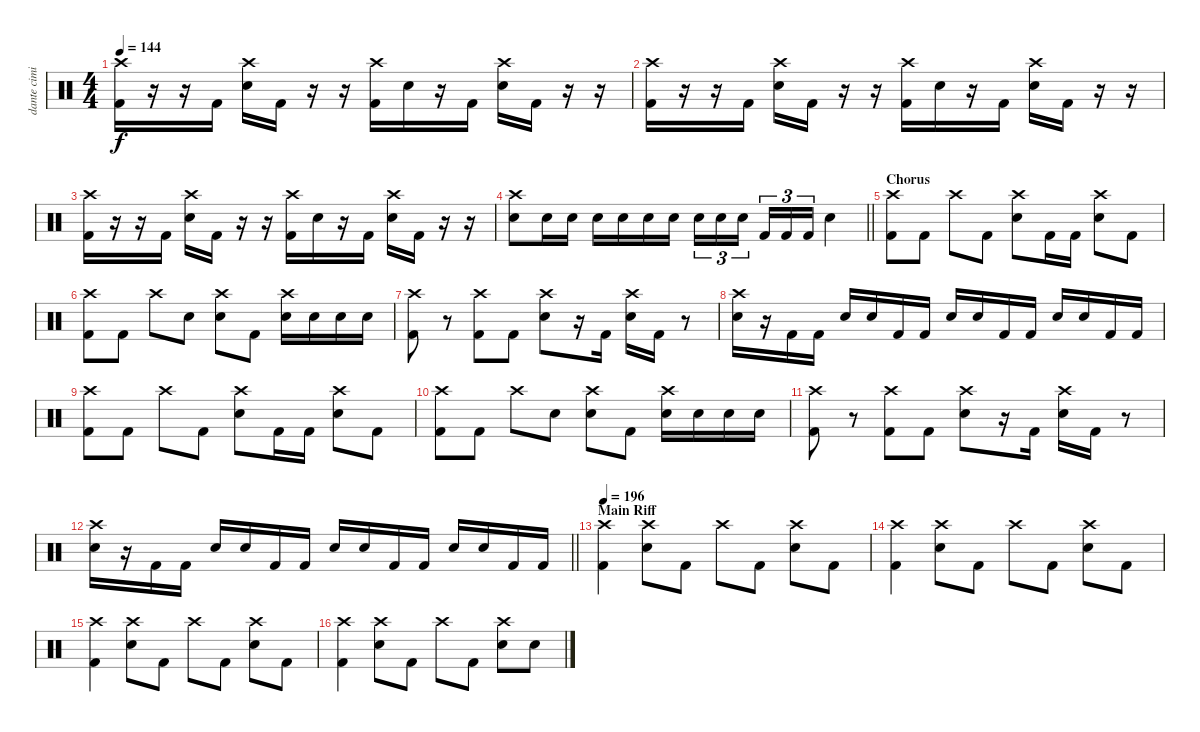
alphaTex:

\track ("dante cimino" "dante cimi") {instrument percussion}
\staff {score}
\articulation defaults
\ts (4 4)
\tempo 144
\clef neutral
\ks c
("Crash high (hit)" "Kick (hit) 2").16{dy f} r.16 r.16 "Kick (hit) 2".16 ("Crash high (hit)" "Electric Snare (hit)").16 "Kick (hit) 2".16 r.16 r.16 ("Crash high (hit)" "Kick (hit) 2").16 "Electric Snare (hit)".16 r.16 "Kick (hit) 2".16 ("Crash high (hit)" "Electric Snare (hit)").16 "Kick (hit) 2".16 r.16 r.16 |
("Crash high (hit)" "Kick (hit) 2").16 r.16 r.16 "Kick (hit) 2".16 ("Crash high (hit)" "Electric Snare (hit)").16 "Kick (hit) 2".16 r.16 r.16 ("Crash high (hit)" "Kick (hit) 2").16 "Electric Snare (hit)".16 r.16 "Kick (hit) 2".16 ("Crash high (hit)" "Electric Snare (hit)").16 "Kick (hit) 2".16 r.16 r.16 |
("Crash high (hit)" "Kick (hit) 2").16 r.16 r.16 "Kick (hit) 2".16 ("Crash high (hit)" "Electric Snare (hit)").16 "Kick (hit) 2".16 r.16 r.16 ("Crash high (hit)" "Kick (hit) 2").16 "Electric Snare (hit)".16 r.16 "Kick (hit) 2".16 ("Crash high (hit)" "Electric Snare (hit)").16 "Kick (hit) 2".16 r.16 r.16 |
\barLineRight lightlight
("Crash high (hit)" "Electric Snare (hit)").8 "Electric Snare (hit)".16 "Electric Snare (hit)".16 "Electric Snare (hit)".16 "Electric Snare (hit)".16 "Electric Snare (hit)".16 "Electric Snare (hit)".16 "Electric Snare (hit)".16{tu (3 2)} "Electric Snare (hit)".16{tu (3 2)} "Electric Snare (hit)".16{tu (3 2) beam splitsecondary} "Kick (hit) 2".16{tu (3 2)} "Kick (hit) 2".16{tu (3 2)} "Kick (hit) 2".16{tu (3 2)} "Electric Snare (hit)".4 |
\section ("" "Chorus")
("Crash high (hit)" "Kick (hit) 2").8 "Kick (hit) 2".8 "Crash high (hit)".8 "Kick (hit) 2".8 ("Crash high (hit)" "Electric Snare (hit)").8 "Kick (hit) 2".16 "Kick (hit) 2".16 ("Crash high (hit)" "Electric Snare (hit)").8 "Kick (hit) 2".8 |
("Crash high (hit)" "Kick (hit) 2").8 "Kick (hit) 2".8 "Crash high (hit)".8 "Electric Snare (hit)".8 ("Crash high (hit)" "Electric Snare (hit)").8 "Kick (hit) 2".8 ("Crash high (hit)" "Electric Snare (hit)").16 "Electric Snare (hit)".16 "Electric Snare (hit)".16 "Electric Snare (hit)".16 |
("Crash high (hit)" "Kick (hit) 2").8 r.8 ("Crash high (hit)" "Kick (hit) 2").8 "Kick (hit) 2".8 ("Crash high (hit)" "Electric Snare (hit)").8 r.16 "Kick (hit) 2".16 ("Crash high (hit)" "Electric Snare (hit)").16 "Kick (hit) 2".16 r.8 |
("Crash high (hit)" "Electric Snare (hit)").16 r.16 "Kick (hit) 2".16 "Kick (hit) 2".16 "Electric Snare (hit)".16 "Electric Snare (hit)".16 "Kick (hit) 2".16 "Kick (hit) 2".16 "Electric Snare (hit)".16 "Electric Snare (hit)".16 "Kick (hit) 2".16 "Kick (hit) 2".16 "Electric Snare (hit)".16 "Electric Snare (hit)".16 "Kick (hit) 2".16 "Kick (hit) 2".16 |
("Crash high (hit)" "Kick (hit) 2").8 "Kick (hit) 2".8 "Crash high (hit)".8 "Kick (hit) 2".8 ("Crash high (hit)" "Electric Snare (hit)").8 "Kick (hit) 2".16 "Kick (hit) 2".16 ("Crash high (hit)" "Electric Snare (hit)").8 "Kick (hit) 2".8 |
("Crash high (hit)" "Kick (hit) 2").8 "Kick (hit) 2".8 "Crash high (hit)".8 "Electric Snare (hit)".8 ("Crash high (hit)" "Electric Snare (hit)").8 "Kick (hit) 2".8 ("Crash high (hit)" "Electric Snare (hit)").16 "Electric Snare (hit)".16 "Electric Snare (hit)".16 "Electric Snare (hit)".16 |
("Crash high (hit)" "Kick (hit) 2").8 r.8 ("Crash high (hit)" "Kick (hit) 2").8 "Kick (hit) 2".8 ("Crash high (hit)" "Electric Snare (hit)").8 r.16 "Kick (hit) 2".16 ("Crash high (hit)" "Electric Snare (hit)").16 "Kick (hit) 2".16 r.8 |
\barLineRight lightlight
("Crash high (hit)" "Electric Snare (hit)").16 r.16 "Kick (hit) 2".16 "Kick (hit) 2".16 "Electric Snare (hit)".16 "Electric Snare (hit)".16 "Kick (hit) 2".16 "Kick (hit) 2".16 "Electric Snare (hit)".16 "Electric Snare (hit)".16 "Kick (hit) 2".16 "Kick (hit) 2".16 "Electric Snare (hit)".16 "Electric Snare (hit)".16 "Kick (hit) 2".16 "Kick (hit) 2".16 |
\section ("" "Main Riff")
\tempo 196
("Crash high (hit)" "Kick (hit) 2").4 ("Crash high (hit)" "Electric Snare (hit)").8 "Kick (hit) 2".8 "Crash high (hit)".8 "Kick (hit) 2".8 ("Crash high (hit)" "Electric Snare (hit)").8 "Kick (hit) 2".8 |
("Crash high (hit)" "Kick (hit) 2").4 ("Crash high (hit)" "Electric Snare (hit)").8 "Kick (hit) 2".8 "Crash high (hit)".8 "Kick (hit) 2".8 ("Crash high (hit)" "Electric Snare (hit)").8 "Kick (hit) 2".8 |
("Crash high (hit)" "Kick (hit) 2").4 ("Crash high (hit)" "Electric Snare (hit)").8 "Kick (hit) 2".8 "Crash high (hit)".8 "Kick (hit) 2".8 ("Crash high (hit)" "Electric Snare (hit)").8 "Kick (hit) 2".8 |
("Crash high (hit)" "Kick (hit) 2").4 ("Crash high (hit)" "Electric Snare (hit)").8 "Kick (hit) 2".8 "Crash high (hit)".8 "Kick (hit) 2".8 ("Crash high (hit)" "Electric Snare (hit)").8 "Electric Snare (hit)".8
